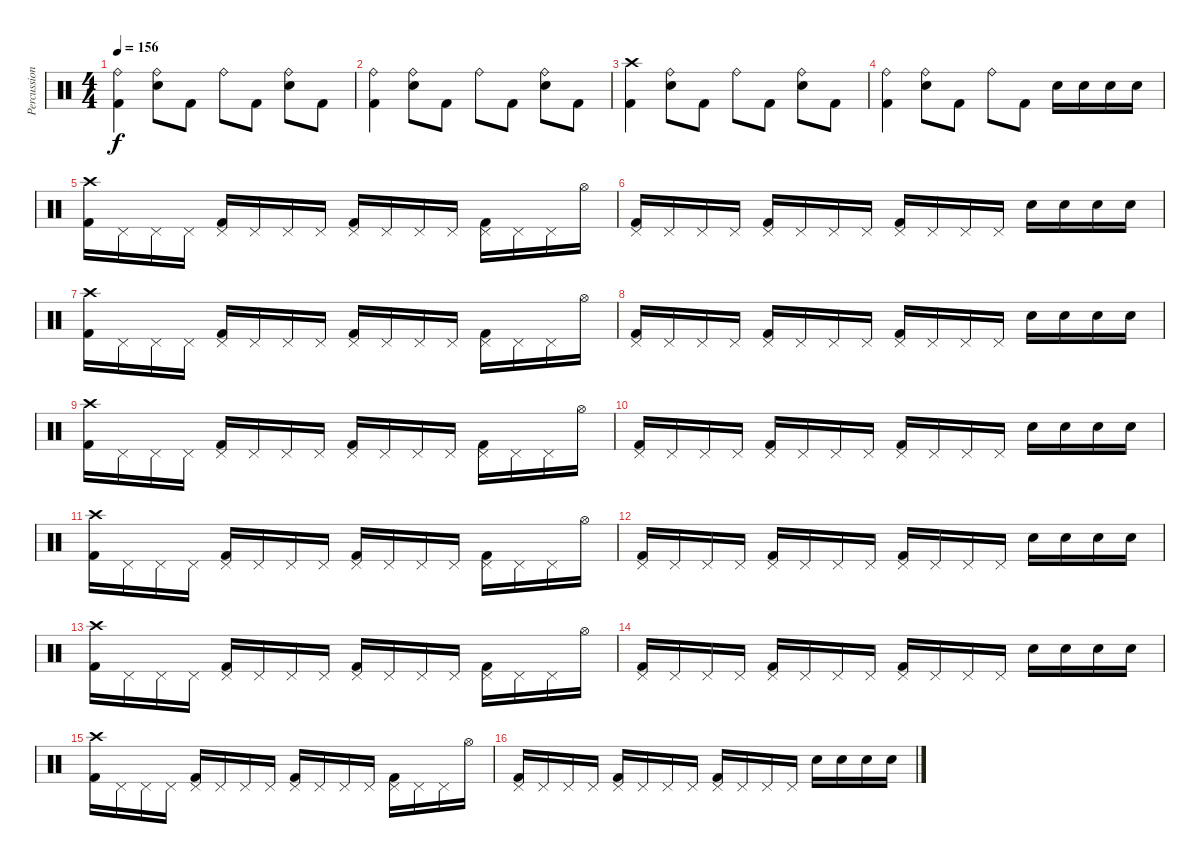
\track ("Percussion" "Percussion") {instrument percussion}
\staff {score}
\articulation defaults
\ts (4 4)
\tempo 156
\clef neutral
\ks c
("Ride (bell)" "Kick (hit) 2").4{dy f} ("Ride (bell)" "Snare (hit) 2").8 "Kick (hit) 2".8 "Ride (bell)".8 "Kick (hit) 2".8 ("Ride (bell)" "Snare (hit) 2").8 "Kick (hit) 2".8 |
("Ride (bell)" "Kick (hit) 2").4 ("Ride (bell)" "Snare (hit) 2").8 "Kick (hit) 2".8 "Ride (bell)".8 "Kick (hit) 2".8 ("Ride (bell)" "Snare (hit) 2").8 "Kick (hit) 2".8 |
("Crash high (hit)" "Kick (hit) 2").4 ("Ride (bell)" "Snare (hit) 2").8 "Kick (hit) 2".8 "Ride (bell)".8 "Kick (hit) 2".8 ("Ride (bell)" "Snare (hit) 2").8 "Kick (hit) 2".8 |
("Ride (bell)" "Kick (hit) 2").4 ("Ride (bell)" "Snare (hit) 2").8 "Kick (hit) 2".8 "Ride (bell)".8 "Kick (hit) 2".8 "Snare (hit) 2".16 "Snare (hit) 2".16 "Snare (hit) 2".16 "Snare (hit) 2".16 |
("Crash high (hit)" "Kick (hit) 2").16 "Pedal Hi-Hat (hit)".16 "Pedal Hi-Hat (hit)".16 "Pedal Hi-Hat (hit)".16 ("Pedal Hi-Hat (hit)" "Kick (hit) 2").16 "Pedal Hi-Hat (hit)".16 "Pedal Hi-Hat (hit)".16 "Pedal Hi-Hat (hit)".16 ("Pedal Hi-Hat (hit)" "Kick (hit) 2").16 "Pedal Hi-Hat (hit)".16 "Pedal Hi-Hat (hit)".16 "Pedal Hi-Hat (hit)".16 ("Pedal Hi-Hat (hit)" "Kick (hit) 2").16 "Pedal Hi-Hat (hit)".16 "Pedal Hi-Hat (hit)".16 "Hi-Hat (open)".16 |
("Pedal Hi-Hat (hit)" "Kick (hit) 2").16 "Pedal Hi-Hat (hit)".16 "Pedal Hi-Hat (hit)".16 "Pedal Hi-Hat (hit)".16 ("Pedal Hi-Hat (hit)" "Kick (hit) 2").16 "Pedal Hi-Hat (hit)".16 "Pedal Hi-Hat (hit)".16 "Pedal Hi-Hat (hit)".16 ("Pedal Hi-Hat (hit)" "Kick (hit) 2").16 "Pedal Hi-Hat (hit)".16 "Pedal Hi-Hat (hit)".16 "Pedal Hi-Hat (hit)".16 "Snare (hit) 2".16 "Snare (hit) 2".16 "Snare (hit) 2".16 "Snare (hit) 2".16 |
("Crash high (hit)" "Kick (hit) 2").16 "Pedal Hi-Hat (hit)".16 "Pedal Hi-Hat (hit)".16 "Pedal Hi-Hat (hit)".16 ("Pedal Hi-Hat (hit)" "Kick (hit) 2").16 "Pedal Hi-Hat (hit)".16 "Pedal Hi-Hat (hit)".16 "Pedal Hi-Hat (hit)".16 ("Pedal Hi-Hat (hit)" "Kick (hit) 2").16 "Pedal Hi-Hat (hit)".16 "Pedal Hi-Hat (hit)".16 "Pedal Hi-Hat (hit)".16 ("Pedal Hi-Hat (hit)" "Kick (hit) 2").16 "Pedal Hi-Hat (hit)".16 "Pedal Hi-Hat (hit)".16 "Hi-Hat (open)".16 |
("Pedal Hi-Hat (hit)" "Kick (hit) 2").16 "Pedal Hi-Hat (hit)".16 "Pedal Hi-Hat (hit)".16 "Pedal Hi-Hat (hit)".16 ("Pedal Hi-Hat (hit)" "Kick (hit) 2").16 "Pedal Hi-Hat (hit)".16 "Pedal Hi-Hat (hit)".16 "Pedal Hi-Hat (hit)".16 ("Pedal Hi-Hat (hit)" "Kick (hit) 2").16 "Pedal Hi-Hat (hit)".16 "Pedal Hi-Hat (hit)".16 "Pedal Hi-Hat (hit)".16 "Snare (hit) 2".16 "Snare (hit) 2".16 "Snare (hit) 2".16 "Snare (hit) 2".16 |
("Crash high (hit)" "Kick (hit) 2").16 "Pedal Hi-Hat (hit)".16 "Pedal Hi-Hat (hit)".16 "Pedal Hi-Hat (hit)".16 ("Pedal Hi-Hat (hit)" "Kick (hit) 2").16 "Pedal Hi-Hat (hit)".16 "Pedal Hi-Hat (hit)".16 "Pedal Hi-Hat (hit)".16 ("Pedal Hi-Hat (hit)" "Kick (hit) 2").16 "Pedal Hi-Hat (hit)".16 "Pedal Hi-Hat (hit)".16 "Pedal Hi-Hat (hit)".16 ("Pedal Hi-Hat (hit)" "Kick (hit) 2").16 "Pedal Hi-Hat (hit)".16 "Pedal Hi-Hat (hit)".16 "Hi-Hat (open)".16 |
("Pedal Hi-Hat (hit)" "Kick (hit) 2").16 "Pedal Hi-Hat (hit)".16 "Pedal Hi-Hat (hit)".16 "Pedal Hi-Hat (hit)".16 ("Pedal Hi-Hat (hit)" "Kick (hit) 2").16 "Pedal Hi-Hat (hit)".16 "Pedal Hi-Hat (hit)".16 "Pedal Hi-Hat (hit)".16 ("Pedal Hi-Hat (hit)" "Kick (hit) 2").16 "Pedal Hi-Hat (hit)".16 "Pedal Hi-Hat (hit)".16 "Pedal Hi-Hat (hit)".16 "Snare (hit) 2".16 "Snare (hit) 2".16 "Snare (hit) 2".16 "Snare (hit) 2".16 |
("Crash high (hit)" "Kick (hit) 2").16 "Pedal Hi-Hat (hit)".16 "Pedal Hi-Hat (hit)".16 "Pedal Hi-Hat (hit)".16 ("Pedal Hi-Hat (hit)" "Kick (hit) 2").16 "Pedal Hi-Hat (hit)".16 "Pedal Hi-Hat (hit)".16 "Pedal Hi-Hat (hit)".16 ("Pedal Hi-Hat (hit)" "Kick (hit) 2").16 "Pedal Hi-Hat (hit)".16 "Pedal Hi-Hat (hit)".16 "Pedal Hi-Hat (hit)".16 ("Pedal Hi-Hat (hit)" "Kick (hit) 2").16 "Pedal Hi-Hat (hit)".16 "Pedal Hi-Hat (hit)".16 "Hi-Hat (open)".16 |
("Pedal Hi-Hat (hit)" "Kick (hit) 2").16 "Pedal Hi-Hat (hit)".16 "Pedal Hi-Hat (hit)".16 "Pedal Hi-Hat (hit)".16 ("Pedal Hi-Hat (hit)" "Kick (hit) 2").16 "Pedal Hi-Hat (hit)".16 "Pedal Hi-Hat (hit)".16 "Pedal Hi-Hat (hit)".16 ("Pedal Hi-Hat (hit)" "Kick (hit) 2").16 "Pedal Hi-Hat (hit)".16 "Pedal Hi-Hat (hit)".16 "Pedal Hi-Hat (hit)".16 "Snare (hit) 2".16 "Snare (hit) 2".16 "Snare (hit) 2".16 "Snare (hit) 2".16 |
("Crash high (hit)" "Kick (hit) 2").16 "Pedal Hi-Hat (hit)".16 "Pedal Hi-Hat (hit)".16 "Pedal Hi-Hat (hit)".16 ("Pedal Hi-Hat (hit)" "Kick (hit) 2").16 "Pedal Hi-Hat (hit)".16 "Pedal Hi-Hat (hit)".16 "Pedal Hi-Hat (hit)".16 ("Pedal Hi-Hat (hit)" "Kick (hit) 2").16 "Pedal Hi-Hat (hit)".16 "Pedal Hi-Hat (hit)".16 "Pedal Hi-Hat (hit)".16 ("Pedal Hi-Hat (hit)" "Kick (hit) 2").16 "Pedal Hi-Hat (hit)".16 "Pedal Hi-Hat (hit)".16 "Hi-Hat (open)".16 |
("Pedal Hi-Hat (hit)" "Kick (hit) 2").16 "Pedal Hi-Hat (hit)".16 "Pedal Hi-Hat (hit)".16 "Pedal Hi-Hat (hit)".16 ("Pedal Hi-Hat (hit)" "Kick (hit) 2").16 "Pedal Hi-Hat (hit)".16 "Pedal Hi-Hat (hit)".16 "Pedal Hi-Hat (hit)".16 ("Pedal Hi-Hat (hit)" "Kick (hit) 2").16 "Pedal Hi-Hat (hit)".16 "Pedal Hi-Hat (hit)".16 "Pedal Hi-Hat (hit)".16 "Snare (hit) 2".16 "Snare (hit) 2".16 "Snare (hit) 2".16 "Snare (hit) 2".16 |
("Crash high (hit)" "Kick (hit) 2").16 "Pedal Hi-Hat (hit)".16 "Pedal Hi-Hat (hit)".16 "Pedal Hi-Hat (hit)".16 ("Pedal Hi-Hat (hit)" "Kick (hit) 2").16 "Pedal Hi-Hat (hit)".16 "Pedal Hi-Hat (hit)".16 "Pedal Hi-Hat (hit)".16 ("Pedal Hi-Hat (hit)" "Kick (hit) 2").16 "Pedal Hi-Hat (hit)".16 "Pedal Hi-Hat (hit)".16 "Pedal Hi-Hat (hit)".16 ("Pedal Hi-Hat (hit)" "Kick (hit) 2").16 "Pedal Hi-Hat (hit)".16 "Pedal Hi-Hat (hit)".16 "Hi-Hat (open)".16 |
("Pedal Hi-Hat (hit)" "Kick (hit) 2").16 "Pedal Hi-Hat (hit)".16 "Pedal Hi-Hat (hit)".16 "Pedal Hi-Hat (hit)".16 ("Pedal Hi-Hat (hit)" "Kick (hit) 2").16 "Pedal Hi-Hat (hit)".16 "Pedal Hi-Hat (hit)".16 "Pedal Hi-Hat (hit)".16 ("Pedal Hi-Hat (hit)" "Kick (hit) 2").16 "Pedal Hi-Hat (hit)".16 "Pedal Hi-Hat (hit)".16 "Pedal Hi-Hat (hit)".16 "Snare (hit) 2".16 "Snare (hit) 2".16 "Snare (hit) 2".16 "Snare (hit) 2".16
